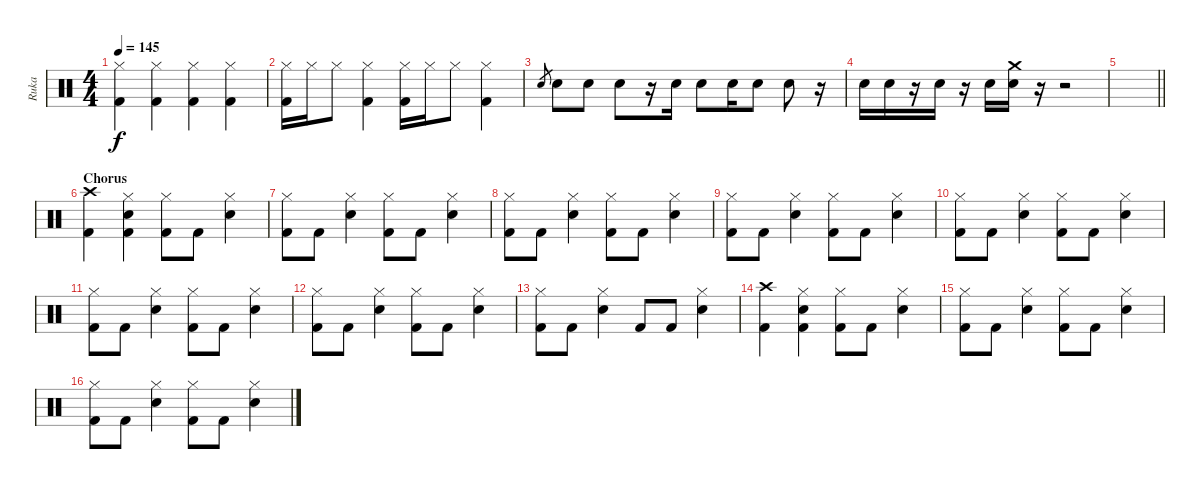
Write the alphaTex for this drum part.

\track ("Ruka" "Ruka") {instrument percussion}
\staff {score}
\articulation defaults
\ts (4 4)
\tempo 145
\clef neutral
\ks c
("Hi-Hat (closed)" "Kick (hit) 2").4{dy f} ("Hi-Hat (closed)" "Kick (hit) 2").4 ("Hi-Hat (closed)" "Kick (hit) 2").4 ("Hi-Hat (closed)" "Kick (hit) 2").4 |
("Hi-Hat (closed)" "Kick (hit) 2").16 "Hi-Hat (closed)".16 "Hi-Hat (closed)".8 ("Hi-Hat (closed)" "Kick (hit) 2").4 ("Hi-Hat (closed)" "Kick (hit) 2").16 "Hi-Hat (closed)".16 "Hi-Hat (closed)".8 ("Hi-Hat (closed)" "Kick (hit) 2").4 |
"Electric Snare (hit)".8{gr} "Electric Snare (hit)".8 "Electric Snare (hit)".8 "Electric Snare (hit)".8 r.16 "Electric Snare (hit)".16 "Electric Snare (hit)".8 "Electric Snare (hit)".16 "Electric Snare (hit)".8 "Electric Snare (hit)".8 r.16 |
"Electric Snare (hit)".16 "Electric Snare (hit)".16 r.16 "Electric Snare (hit)".16 r.16 "Electric Snare (hit)".16 ("Crash medium (hit)" "Electric Snare (hit)").16 r.16 r.2 |
\barLineRight lightlight
|
\section ("" "Chorus")
("Crash high (hit)" "Kick (hit) 2").4 ("Hi-Hat (closed)" "Electric Snare (hit)" "Kick (hit) 2").4 ("Hi-Hat (closed)" "Kick (hit) 2").8 "Kick (hit) 2".8 ("Hi-Hat (closed)" "Electric Snare (hit)").4 |
("Hi-Hat (closed)" "Kick (hit) 2").8 "Kick (hit) 2".8 ("Hi-Hat (closed)" "Electric Snare (hit)").4 ("Hi-Hat (closed)" "Kick (hit) 2").8 "Kick (hit) 2".8 ("Hi-Hat (closed)" "Electric Snare (hit)").4 |
("Hi-Hat (closed)" "Kick (hit) 2").8 "Kick (hit) 2".8 ("Hi-Hat (closed)" "Electric Snare (hit)").4 ("Hi-Hat (closed)" "Kick (hit) 2").8 "Kick (hit) 2".8 ("Hi-Hat (closed)" "Electric Snare (hit)").4 |
("Hi-Hat (closed)" "Kick (hit) 2").8 "Kick (hit) 2".8 ("Hi-Hat (closed)" "Electric Snare (hit)").4 ("Hi-Hat (closed)" "Kick (hit) 2").8 "Kick (hit) 2".8 ("Hi-Hat (closed)" "Electric Snare (hit)").4 |
("Hi-Hat (closed)" "Kick (hit) 2").8 "Kick (hit) 2".8 ("Hi-Hat (closed)" "Electric Snare (hit)").4 ("Hi-Hat (closed)" "Kick (hit) 2").8 "Kick (hit) 2".8 ("Hi-Hat (closed)" "Electric Snare (hit)").4 |
("Hi-Hat (closed)" "Kick (hit) 2").8 "Kick (hit) 2".8 ("Hi-Hat (closed)" "Electric Snare (hit)").4 ("Hi-Hat (closed)" "Kick (hit) 2").8 "Kick (hit) 2".8 ("Hi-Hat (closed)" "Electric Snare (hit)").4 |
("Hi-Hat (closed)" "Kick (hit) 2").8 "Kick (hit) 2".8 ("Hi-Hat (closed)" "Electric Snare (hit)").4 ("Hi-Hat (closed)" "Kick (hit) 2").8 "Kick (hit) 2".8 ("Hi-Hat (closed)" "Electric Snare (hit)").4 |
("Hi-Hat (closed)" "Kick (hit) 2").8 "Kick (hit) 2".8 ("Hi-Hat (closed)" "Electric Snare (hit)").4 "Kick (hit) 2".8 "Kick (hit) 2".8 ("Hi-Hat (closed)" "Electric Snare (hit)").4 |
("Crash high (hit)" "Kick (hit) 2").4 ("Hi-Hat (closed)" "Electric Snare (hit)" "Kick (hit) 2").4 ("Hi-Hat (closed)" "Kick (hit) 2").8 "Kick (hit) 2".8 ("Hi-Hat (closed)" "Electric Snare (hit)").4 |
("Hi-Hat (closed)" "Kick (hit) 2").8 "Kick (hit) 2".8 ("Hi-Hat (closed)" "Electric Snare (hit)").4 ("Hi-Hat (closed)" "Kick (hit) 2").8 "Kick (hit) 2".8 ("Hi-Hat (closed)" "Electric Snare (hit)").4 |
("Hi-Hat (closed)" "Kick (hit) 2").8 "Kick (hit) 2".8 ("Hi-Hat (closed)" "Electric Snare (hit)").4 ("Hi-Hat (closed)" "Kick (hit) 2").8 "Kick (hit) 2".8 ("Hi-Hat (closed)" "Electric Snare (hit)").4
